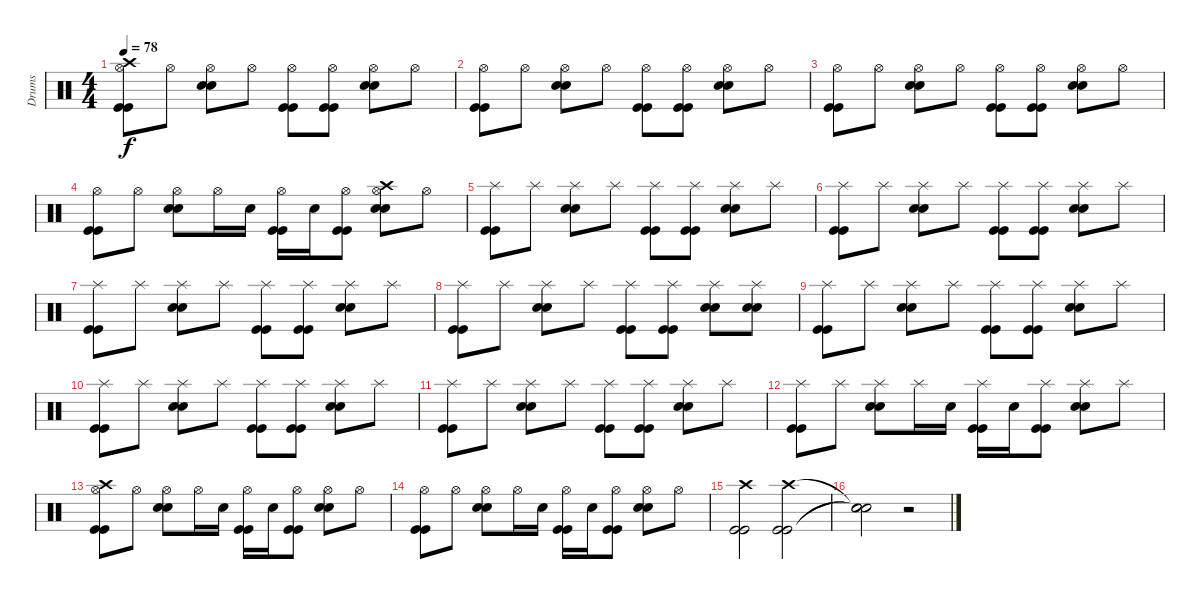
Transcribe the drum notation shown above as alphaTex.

\track ("Drums" "Drums") {instrument percussion}
\staff {score}
\articulation defaults
\ts (4 4)
\tempo 78
\clef neutral
\ks c
("Kick (hit)" "Kick (hit)" "Hi-Hat (open)" "Crash high (hit)").8{dy f} "Hi-Hat (open)".8 ("Snare (hit) 2" "Snare (hit) 2" "Hi-Hat (open)").8 "Hi-Hat (open)".8 ("Kick (hit)" "Kick (hit)" "Hi-Hat (open)").8 ("Kick (hit)" "Kick (hit)" "Hi-Hat (open)").8 ("Snare (hit) 2" "Snare (hit) 2" "Hi-Hat (open)").8 "Hi-Hat (open)".8 |
("Kick (hit)" "Kick (hit)" "Hi-Hat (open)").8 "Hi-Hat (open)".8 ("Snare (hit) 2" "Snare (hit) 2" "Hi-Hat (open)").8 "Hi-Hat (open)".8 ("Kick (hit)" "Kick (hit)" "Hi-Hat (open)").8 ("Kick (hit)" "Kick (hit)" "Hi-Hat (open)").8 ("Snare (hit) 2" "Snare (hit) 2" "Hi-Hat (open)").8 "Hi-Hat (open)".8 |
("Kick (hit)" "Kick (hit)" "Hi-Hat (open)").8 "Hi-Hat (open)".8 ("Snare (hit) 2" "Snare (hit) 2" "Hi-Hat (open)").8 "Hi-Hat (open)".8 ("Kick (hit)" "Kick (hit)" "Hi-Hat (open)").8 ("Kick (hit)" "Kick (hit)" "Hi-Hat (open)").8 ("Snare (hit) 2" "Snare (hit) 2" "Hi-Hat (open)").8 "Hi-Hat (open)".8 |
("Kick (hit)" "Kick (hit)" "Hi-Hat (open)").8 "Hi-Hat (open)".8 ("Snare (hit) 2" "Snare (hit) 2" "Hi-Hat (open)").8 "Hi-Hat (open)".16 "Snare (hit) 2".16 ("Kick (hit)" "Kick (hit)" "Hi-Hat (open)").16 "Snare (hit) 2".16 ("Kick (hit)" "Kick (hit)" "Hi-Hat (open)").8 ("Snare (hit) 2" "Snare (hit) 2" "Hi-Hat (open)" "Crash high (hit)").8 "Hi-Hat (open)".8 |
("Kick (hit)" "Kick (hit)" "Splash (hit)").8 "Splash (hit)".8 ("Snare (hit) 2" "Snare (hit) 2" "Splash (hit)").8 "Splash (hit)".8 ("Kick (hit)" "Kick (hit)" "Splash (hit)").8 ("Kick (hit)" "Kick (hit)" "Splash (hit)").8 ("Snare (hit) 2" "Snare (hit) 2" "Splash (hit)").8 "Splash (hit)".8 |
("Kick (hit)" "Kick (hit)" "Splash (hit)").8 "Splash (hit)".8 ("Snare (hit) 2" "Snare (hit) 2" "Splash (hit)").8 "Splash (hit)".8 ("Kick (hit)" "Kick (hit)" "Splash (hit)").8 ("Kick (hit)" "Kick (hit)" "Splash (hit)").8 ("Snare (hit) 2" "Snare (hit) 2" "Splash (hit)").8 "Splash (hit)".8 |
("Kick (hit)" "Kick (hit)" "Splash (hit)").8 "Splash (hit)".8 ("Snare (hit) 2" "Snare (hit) 2" "Splash (hit)").8 "Splash (hit)".8 ("Kick (hit)" "Kick (hit)" "Splash (hit)").8 ("Kick (hit)" "Kick (hit)" "Splash (hit)").8 ("Snare (hit) 2" "Snare (hit) 2" "Splash (hit)").8 "Splash (hit)".8 |
("Kick (hit)" "Kick (hit)" "Splash (hit)").8 "Splash (hit)".8 ("Snare (hit) 2" "Snare (hit) 2" "Splash (hit)").8 "Splash (hit)".8 ("Kick (hit)" "Kick (hit)" "Splash (hit)").8 ("Kick (hit)" "Kick (hit)" "Splash (hit)").8 ("Snare (hit) 2" "Snare (hit) 2" "Splash (hit)").8 ("Snare (hit) 2" "Snare (hit) 2" "Splash (hit)").8 |
("Kick (hit)" "Kick (hit)" "Splash (hit)").8 "Splash (hit)".8 ("Snare (hit) 2" "Snare (hit) 2" "Splash (hit)").8 "Splash (hit)".8 ("Kick (hit)" "Kick (hit)" "Splash (hit)").8 ("Kick (hit)" "Kick (hit)" "Splash (hit)").8 ("Snare (hit) 2" "Snare (hit) 2" "Splash (hit)").8 "Splash (hit)".8 |
("Kick (hit)" "Kick (hit)" "Splash (hit)").8 "Splash (hit)".8 ("Snare (hit) 2" "Snare (hit) 2" "Splash (hit)").8 "Splash (hit)".8 ("Kick (hit)" "Kick (hit)" "Splash (hit)").8 ("Kick (hit)" "Kick (hit)" "Splash (hit)").8 ("Snare (hit) 2" "Snare (hit) 2" "Splash (hit)").8 "Splash (hit)".8 |
("Kick (hit)" "Kick (hit)" "Splash (hit)").8 "Splash (hit)".8 ("Snare (hit) 2" "Snare (hit) 2" "Splash (hit)").8 "Splash (hit)".8 ("Kick (hit)" "Kick (hit)" "Splash (hit)").8 ("Kick (hit)" "Kick (hit)" "Splash (hit)").8 ("Snare (hit) 2" "Snare (hit) 2" "Splash (hit)").8 "Splash (hit)".8 |
("Kick (hit)" "Kick (hit)" "Splash (hit)").8 "Splash (hit)".8 ("Snare (hit) 2" "Snare (hit) 2" "Splash (hit)").8 "Splash (hit)".16 "Snare (hit) 2".16 ("Kick (hit)" "Kick (hit)" "Splash (hit)").16 "Snare (hit) 2".16 ("Kick (hit)" "Kick (hit)" "Splash (hit)").8 ("Snare (hit) 2" "Snare (hit) 2" "Splash (hit)").8 "Splash (hit)".8 |
("Kick (hit)" "Kick (hit)" "Hi-Hat (open)" "Crash high (hit)").8 "Hi-Hat (open)".8 ("Snare (hit) 2" "Snare (hit) 2" "Hi-Hat (open)").8 "Hi-Hat (open)".16 "Snare (hit) 2".16 ("Kick (hit)" "Kick (hit)" "Hi-Hat (open)").16 "Snare (hit) 2".16 ("Kick (hit)" "Kick (hit)" "Hi-Hat (open)").8 ("Snare (hit) 2" "Snare (hit) 2" "Hi-Hat (open)").8 "Hi-Hat (open)".8 |
("Kick (hit)" "Kick (hit)" "Hi-Hat (open)").8 "Hi-Hat (open)".8 ("Snare (hit) 2" "Snare (hit) 2" "Hi-Hat (open)").8 "Hi-Hat (open)".16 "Snare (hit) 2".16 ("Kick (hit)" "Kick (hit)" "Hi-Hat (open)").16 "Snare (hit) 2".16 ("Kick (hit)" "Kick (hit)" "Hi-Hat (open)").8 ("Snare (hit) 2" "Snare (hit) 2" "Hi-Hat (open)").8 "Hi-Hat (open)".8 |
("Kick (hit)" "Kick (hit)" "Crash high (hit)").2 ("Kick (hit)" "Kick (hit)" "Crash high (hit)").2 |
("Snare (hit)"{t} "Snare (hit)"{t} "Snare (hit)"{t}).2 r.2
